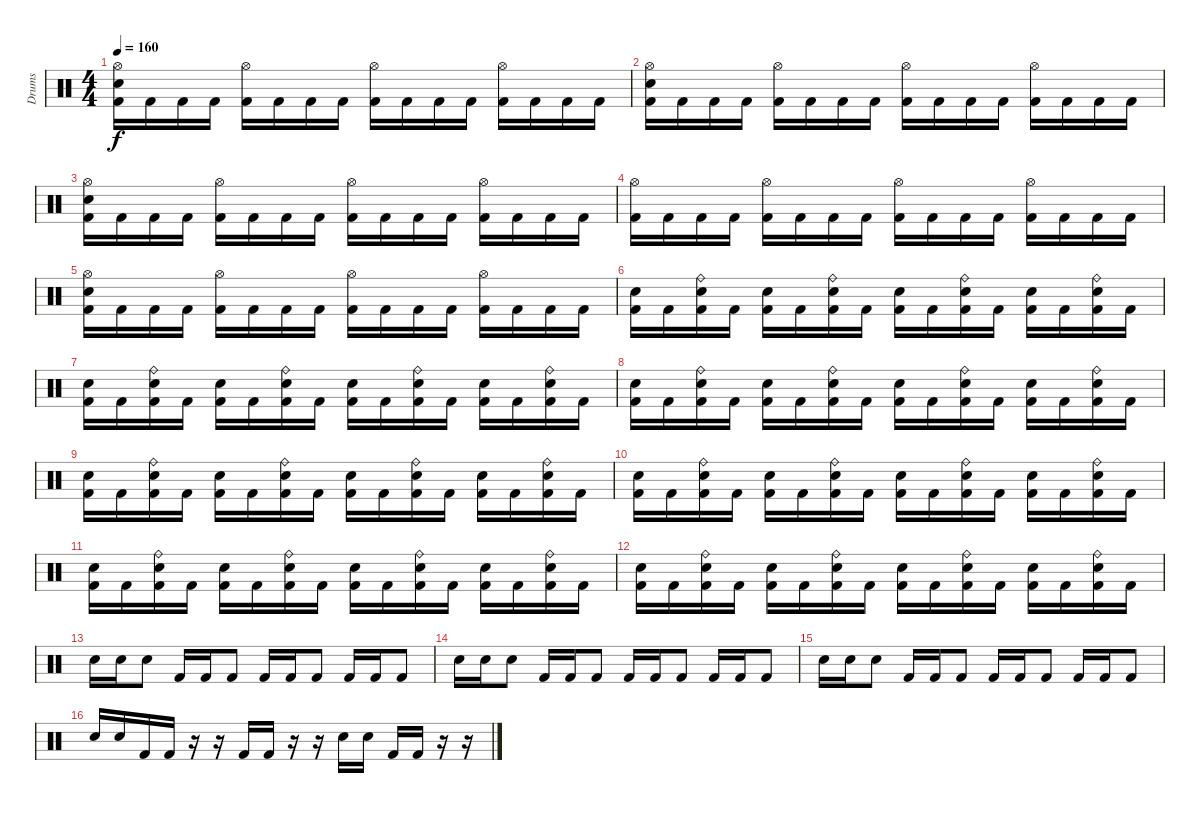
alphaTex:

\track ("Drums" "Drums") {instrument percussion}
\staff {score}
\articulation defaults
\ts (4 4)
\tempo 160
\clef neutral
\ks c
("Hi-Hat (open)" "Snare (hit) 2" "Kick (hit) 2").16{dy f} "Kick (hit) 2".16 "Kick (hit) 2".16 "Kick (hit) 2".16 ("Hi-Hat (open)" "Kick (hit) 2").16 "Kick (hit) 2".16 "Kick (hit) 2".16 "Kick (hit) 2".16 ("Hi-Hat (open)" "Kick (hit) 2").16 "Kick (hit) 2".16 "Kick (hit) 2".16 "Kick (hit) 2".16 ("Hi-Hat (open)" "Kick (hit) 2").16 "Kick (hit) 2".16 "Kick (hit) 2".16 "Kick (hit) 2".16 |
("Hi-Hat (open)" "Snare (hit) 2" "Kick (hit) 2").16 "Kick (hit) 2".16 "Kick (hit) 2".16 "Kick (hit) 2".16 ("Hi-Hat (open)" "Kick (hit) 2").16 "Kick (hit) 2".16 "Kick (hit) 2".16 "Kick (hit) 2".16 ("Hi-Hat (open)" "Kick (hit) 2").16 "Kick (hit) 2".16 "Kick (hit) 2".16 "Kick (hit) 2".16 ("Hi-Hat (open)" "Kick (hit) 2").16 "Kick (hit) 2".16 "Kick (hit) 2".16 "Kick (hit) 2".16 |
("Hi-Hat (open)" "Snare (hit) 2" "Kick (hit) 2").16 "Kick (hit) 2".16 "Kick (hit) 2".16 "Kick (hit) 2".16 ("Hi-Hat (open)" "Kick (hit) 2").16 "Kick (hit) 2".16 "Kick (hit) 2".16 "Kick (hit) 2".16 ("Hi-Hat (open)" "Kick (hit) 2").16 "Kick (hit) 2".16 "Kick (hit) 2".16 "Kick (hit) 2".16 ("Hi-Hat (open)" "Kick (hit) 2").16 "Kick (hit) 2".16 "Kick (hit) 2".16 "Kick (hit) 2".16 |
("Hi-Hat (open)" "Kick (hit) 2").16 "Kick (hit) 2".16 "Kick (hit) 2".16 "Kick (hit) 2".16 ("Hi-Hat (open)" "Kick (hit) 2").16 "Kick (hit) 2".16 "Kick (hit) 2".16 "Kick (hit) 2".16 ("Hi-Hat (open)" "Kick (hit) 2").16 "Kick (hit) 2".16 "Kick (hit) 2".16 "Kick (hit) 2".16 ("Hi-Hat (open)" "Kick (hit) 2").16 "Kick (hit) 2".16 "Kick (hit) 2".16 "Kick (hit) 2".16 |
("Hi-Hat (open)" "Snare (hit) 2" "Kick (hit) 2").16 "Kick (hit) 2".16 "Kick (hit) 2".16 "Kick (hit) 2".16 ("Hi-Hat (open)" "Kick (hit) 2").16 "Kick (hit) 2".16 "Kick (hit) 2".16 "Kick (hit) 2".16 ("Hi-Hat (open)" "Kick (hit) 2").16 "Kick (hit) 2".16 "Kick (hit) 2".16 "Kick (hit) 2".16 ("Hi-Hat (open)" "Kick (hit) 2").16 "Kick (hit) 2".16 "Kick (hit) 2".16 "Kick (hit) 2".16 |
("Snare (hit) 2" "Kick (hit) 2").16 "Kick (hit) 2".16 ("Ride (bell)" "Snare (hit) 2" "Kick (hit) 2").16 "Kick (hit) 2".16 ("Snare (hit) 2" "Kick (hit) 2").16 "Kick (hit) 2".16 ("Ride (bell)" "Snare (hit) 2" "Kick (hit) 2").16 "Kick (hit) 2".16 ("Snare (hit) 2" "Kick (hit) 2").16 "Kick (hit) 2".16 ("Ride (bell)" "Snare (hit) 2" "Kick (hit) 2").16 "Kick (hit) 2".16 ("Snare (hit) 2" "Kick (hit) 2").16 "Kick (hit) 2".16 ("Ride (bell)" "Snare (hit) 2" "Kick (hit) 2").16 "Kick (hit) 2".16 |
("Snare (hit) 2" "Kick (hit) 2").16 "Kick (hit) 2".16 ("Ride (bell)" "Snare (hit) 2" "Kick (hit) 2").16 "Kick (hit) 2".16 ("Snare (hit) 2" "Kick (hit) 2").16 "Kick (hit) 2".16 ("Ride (bell)" "Snare (hit) 2" "Kick (hit) 2").16 "Kick (hit) 2".16 ("Snare (hit) 2" "Kick (hit) 2").16 "Kick (hit) 2".16 ("Ride (bell)" "Snare (hit) 2" "Kick (hit) 2").16 "Kick (hit) 2".16 ("Snare (hit) 2" "Kick (hit) 2").16 "Kick (hit) 2".16 ("Ride (bell)" "Snare (hit) 2" "Kick (hit) 2").16 "Kick (hit) 2".16 |
("Snare (hit) 2" "Kick (hit) 2").16 "Kick (hit) 2".16 ("Ride (bell)" "Snare (hit) 2" "Kick (hit) 2").16 "Kick (hit) 2".16 ("Snare (hit) 2" "Kick (hit) 2").16 "Kick (hit) 2".16 ("Ride (bell)" "Snare (hit) 2" "Kick (hit) 2").16 "Kick (hit) 2".16 ("Snare (hit) 2" "Kick (hit) 2").16 "Kick (hit) 2".16 ("Ride (bell)" "Snare (hit) 2" "Kick (hit) 2").16 "Kick (hit) 2".16 ("Snare (hit) 2" "Kick (hit) 2").16 "Kick (hit) 2".16 ("Ride (bell)" "Snare (hit) 2" "Kick (hit) 2").16 "Kick (hit) 2".16 |
("Snare (hit) 2" "Kick (hit) 2").16 "Kick (hit) 2".16 ("Ride (bell)" "Snare (hit) 2" "Kick (hit) 2").16 "Kick (hit) 2".16 ("Snare (hit) 2" "Kick (hit) 2").16 "Kick (hit) 2".16 ("Ride (bell)" "Snare (hit) 2" "Kick (hit) 2").16 "Kick (hit) 2".16 ("Snare (hit) 2" "Kick (hit) 2").16 "Kick (hit) 2".16 ("Ride (bell)" "Snare (hit) 2" "Kick (hit) 2").16 "Kick (hit) 2".16 ("Snare (hit) 2" "Kick (hit) 2").16 "Kick (hit) 2".16 ("Ride (bell)" "Snare (hit) 2" "Kick (hit) 2").16 "Kick (hit) 2".16 |
("Snare (hit) 2" "Kick (hit) 2").16 "Kick (hit) 2".16 ("Ride (bell)" "Snare (hit) 2" "Kick (hit) 2").16 "Kick (hit) 2".16 ("Snare (hit) 2" "Kick (hit) 2").16 "Kick (hit) 2".16 ("Ride (bell)" "Snare (hit) 2" "Kick (hit) 2").16 "Kick (hit) 2".16 ("Snare (hit) 2" "Kick (hit) 2").16 "Kick (hit) 2".16 ("Ride (bell)" "Snare (hit) 2" "Kick (hit) 2").16 "Kick (hit) 2".16 ("Snare (hit) 2" "Kick (hit) 2").16 "Kick (hit) 2".16 ("Ride (bell)" "Snare (hit) 2" "Kick (hit) 2").16 "Kick (hit) 2".16 |
("Snare (hit) 2" "Kick (hit) 2").16 "Kick (hit) 2".16 ("Ride (bell)" "Snare (hit) 2" "Kick (hit) 2").16 "Kick (hit) 2".16 ("Snare (hit) 2" "Kick (hit) 2").16 "Kick (hit) 2".16 ("Ride (bell)" "Snare (hit) 2" "Kick (hit) 2").16 "Kick (hit) 2".16 ("Snare (hit) 2" "Kick (hit) 2").16 "Kick (hit) 2".16 ("Ride (bell)" "Snare (hit) 2" "Kick (hit) 2").16 "Kick (hit) 2".16 ("Snare (hit) 2" "Kick (hit) 2").16 "Kick (hit) 2".16 ("Ride (bell)" "Snare (hit) 2" "Kick (hit) 2").16 "Kick (hit) 2".16 |
("Snare (hit) 2" "Kick (hit) 2").16 "Kick (hit) 2".16 ("Ride (bell)" "Snare (hit) 2" "Kick (hit) 2").16 "Kick (hit) 2".16 ("Snare (hit) 2" "Kick (hit) 2").16 "Kick (hit) 2".16 ("Ride (bell)" "Snare (hit) 2" "Kick (hit) 2").16 "Kick (hit) 2".16 ("Snare (hit) 2" "Kick (hit) 2").16 "Kick (hit) 2".16 ("Ride (bell)" "Snare (hit) 2" "Kick (hit) 2").16 "Kick (hit) 2".16 ("Snare (hit) 2" "Kick (hit) 2").16 "Kick (hit) 2".16 ("Ride (bell)" "Snare (hit) 2" "Kick (hit) 2").16 "Kick (hit) 2".16 |
"Snare (hit) 2".16 "Snare (hit) 2".16 "Snare (hit) 2".8 "Kick (hit) 2".16 "Kick (hit) 2".16 "Kick (hit) 2".8 "Kick (hit) 2".16 "Kick (hit) 2".16 "Kick (hit) 2".8 "Kick (hit) 2".16 "Kick (hit) 2".16 "Kick (hit) 2".8 |
"Snare (hit) 2".16 "Snare (hit) 2".16 "Snare (hit) 2".8 "Kick (hit) 2".16 "Kick (hit) 2".16 "Kick (hit) 2".8 "Kick (hit) 2".16 "Kick (hit) 2".16 "Kick (hit) 2".8 "Kick (hit) 2".16 "Kick (hit) 2".16 "Kick (hit) 2".8 |
"Snare (hit) 2".16 "Snare (hit) 2".16 "Snare (hit) 2".8 "Kick (hit) 2".16 "Kick (hit) 2".16 "Kick (hit) 2".8 "Kick (hit) 2".16 "Kick (hit) 2".16 "Kick (hit) 2".8 "Kick (hit) 2".16 "Kick (hit) 2".16 "Kick (hit) 2".8 |
"Snare (hit) 2".16 "Snare (hit) 2".16 "Kick (hit) 2".16 "Kick (hit) 2".16 r.16 r.16 "Kick (hit) 2".16 "Kick (hit) 2".16 r.16 r.16 "Snare (hit) 2".16 "Snare (hit) 2".16 "Kick (hit) 2".16 "Kick (hit) 2".16 r.16 r.16
